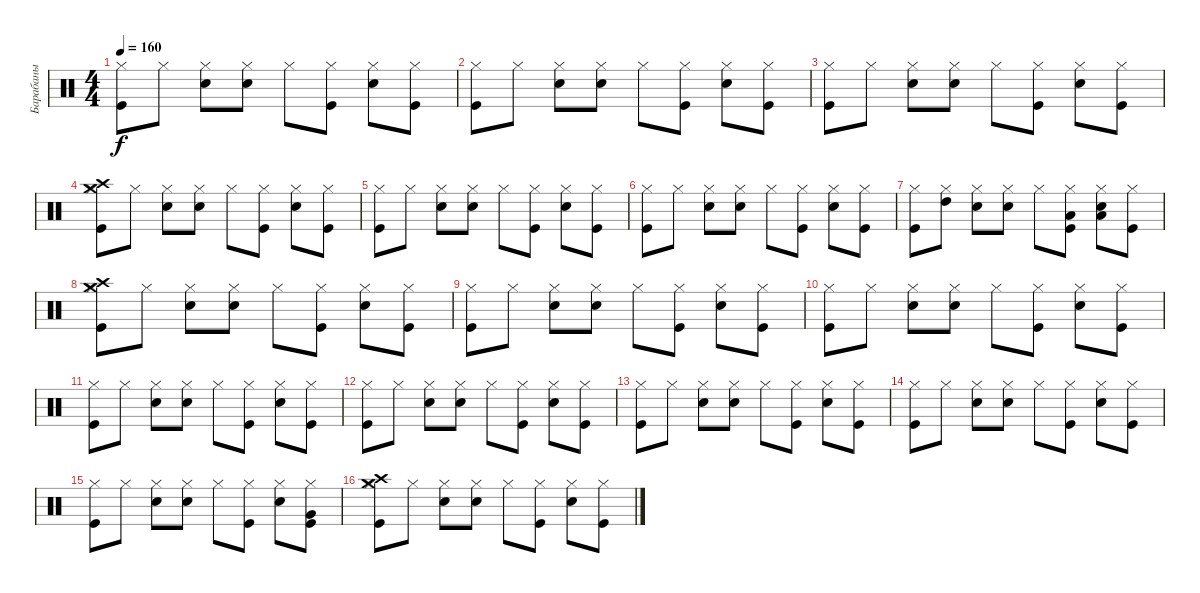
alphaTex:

\track ("Барабаны" "Барабаны") {instrument percussion}
\staff {score}
\articulation defaults
\ts (4 4)
\tempo 160
\clef neutral
\ks c
("Kick (hit)" "Hi-Hat (closed)").8{dy f} "Hi-Hat (closed)".8 ("Snare (hit) 2" "Hi-Hat (closed)").8 ("Snare (hit) 2" "Hi-Hat (closed)").8 "Hi-Hat (closed)".8 ("Kick (hit)" "Hi-Hat (closed)").8 ("Snare (hit) 2" "Hi-Hat (closed)").8 ("Kick (hit)" "Hi-Hat (closed)").8 |
("Kick (hit)" "Hi-Hat (closed)").8 "Hi-Hat (closed)".8 ("Snare (hit) 2" "Hi-Hat (closed)").8 ("Snare (hit) 2" "Hi-Hat (closed)").8 "Hi-Hat (closed)".8 ("Kick (hit)" "Hi-Hat (closed)").8 ("Snare (hit) 2" "Hi-Hat (closed)").8 ("Kick (hit)" "Hi-Hat (closed)").8 |
("Kick (hit)" "Hi-Hat (closed)").8 "Hi-Hat (closed)".8 ("Snare (hit) 2" "Hi-Hat (closed)").8 ("Snare (hit) 2" "Hi-Hat (closed)").8 "Hi-Hat (closed)".8 ("Kick (hit)" "Hi-Hat (closed)").8 ("Snare (hit) 2" "Hi-Hat (closed)").8 ("Kick (hit)" "Hi-Hat (closed)").8 |
("Kick (hit)" "Hi-Hat (closed)" "Crash high (hit)" "Crash medium (hit)").8 "Hi-Hat (closed)".8 ("Snare (hit) 2" "Hi-Hat (closed)").8 ("Snare (hit) 2" "Hi-Hat (closed)").8 "Hi-Hat (closed)".8 ("Kick (hit)" "Hi-Hat (closed)").8 ("Snare (hit) 2" "Hi-Hat (closed)").8 ("Kick (hit)" "Hi-Hat (closed)").8 |
("Kick (hit)" "Hi-Hat (closed)").8 "Hi-Hat (closed)".8 ("Snare (hit) 2" "Hi-Hat (closed)").8 ("Snare (hit) 2" "Hi-Hat (closed)").8 "Hi-Hat (closed)".8 ("Kick (hit)" "Hi-Hat (closed)").8 ("Snare (hit) 2" "Hi-Hat (closed)").8 ("Kick (hit)" "Hi-Hat (closed)").8 |
("Kick (hit)" "Hi-Hat (closed)").8 "Hi-Hat (closed)".8 ("Snare (hit) 2" "Hi-Hat (closed)").8 ("Snare (hit) 2" "Hi-Hat (closed)").8 "Hi-Hat (closed)".8 ("Kick (hit)" "Hi-Hat (closed)").8 ("Snare (hit) 2" "Hi-Hat (closed)").8 ("Kick (hit)" "Hi-Hat (closed)").8 |
("Kick (hit)" "Hi-Hat (closed)").8 ("Hi-Hat (closed)" "High Tom (hit)").8 ("Snare (hit) 2" "Hi-Hat (closed)").8 ("Snare (hit) 2" "Hi-Hat (closed)").8 "Hi-Hat (closed)".8 ("Kick (hit)" "Hi-Hat (closed)" "Low Tom (hit)").8 ("Snare (hit) 2" "Hi-Hat (closed)" "Low Tom (hit)").8 ("Kick (hit)" "Hi-Hat (closed)").8 |
("Kick (hit)" "Hi-Hat (closed)" "Crash high (hit)" "Crash medium (hit)").8 "Hi-Hat (closed)".8 ("Snare (hit) 2" "Hi-Hat (closed)").8 ("Snare (hit) 2" "Hi-Hat (closed)").8 "Hi-Hat (closed)".8 ("Kick (hit)" "Hi-Hat (closed)").8 ("Snare (hit) 2" "Hi-Hat (closed)").8 ("Kick (hit)" "Hi-Hat (closed)").8 |
("Kick (hit)" "Hi-Hat (closed)").8 "Hi-Hat (closed)".8 ("Snare (hit) 2" "Hi-Hat (closed)").8 ("Snare (hit) 2" "Hi-Hat (closed)").8 "Hi-Hat (closed)".8 ("Kick (hit)" "Hi-Hat (closed)").8 ("Snare (hit) 2" "Hi-Hat (closed)").8 ("Kick (hit)" "Hi-Hat (closed)").8 |
("Kick (hit)" "Hi-Hat (closed)").8 "Hi-Hat (closed)".8 ("Snare (hit) 2" "Hi-Hat (closed)").8 ("Snare (hit) 2" "Hi-Hat (closed)").8 "Hi-Hat (closed)".8 ("Kick (hit)" "Hi-Hat (closed)").8 ("Snare (hit) 2" "Hi-Hat (closed)").8 ("Kick (hit)" "Hi-Hat (closed)").8 |
("Kick (hit)" "Hi-Hat (closed)").8 "Hi-Hat (closed)".8 ("Snare (hit) 2" "Hi-Hat (closed)").8 ("Snare (hit) 2" "Hi-Hat (closed)").8 "Hi-Hat (closed)".8 ("Kick (hit)" "Hi-Hat (closed)").8 ("Snare (hit) 2" "Hi-Hat (closed)").8 ("Kick (hit)" "Hi-Hat (closed)").8 |
("Kick (hit)" "Hi-Hat (closed)").8 "Hi-Hat (closed)".8 ("Snare (hit) 2" "Hi-Hat (closed)").8 ("Snare (hit) 2" "Hi-Hat (closed)").8 "Hi-Hat (closed)".8 ("Kick (hit)" "Hi-Hat (closed)").8 ("Snare (hit) 2" "Hi-Hat (closed)").8 ("Kick (hit)" "Hi-Hat (closed)").8 |
("Kick (hit)" "Hi-Hat (closed)").8 "Hi-Hat (closed)".8 ("Snare (hit) 2" "Hi-Hat (closed)").8 ("Snare (hit) 2" "Hi-Hat (closed)").8 "Hi-Hat (closed)".8 ("Kick (hit)" "Hi-Hat (closed)").8 ("Snare (hit) 2" "Hi-Hat (closed)").8 ("Kick (hit)" "Hi-Hat (closed)").8 |
("Kick (hit)" "Hi-Hat (closed)").8 "Hi-Hat (closed)".8 ("Snare (hit) 2" "Hi-Hat (closed)").8 ("Snare (hit) 2" "Hi-Hat (closed)").8 "Hi-Hat (closed)".8 ("Kick (hit)" "Hi-Hat (closed)").8 ("Snare (hit) 2" "Hi-Hat (closed)").8 ("Kick (hit)" "Hi-Hat (closed)").8 |
("Kick (hit)" "Hi-Hat (closed)").8 "Hi-Hat (closed)".8 ("Snare (hit) 2" "Hi-Hat (closed)").8 ("Snare (hit) 2" "Hi-Hat (closed)").8 "Hi-Hat (closed)".8 ("Kick (hit)" "Hi-Hat (closed)").8 ("Snare (hit) 2" "Hi-Hat (closed)").8 ("Kick (hit)" "Hi-Hat (closed)" "Very Low Tom (hit)").8 |
("Kick (hit)" "Hi-Hat (closed)" "Crash high (hit)" "Crash medium (hit)").8 "Hi-Hat (closed)".8 ("Snare (hit) 2" "Hi-Hat (closed)").8 ("Snare (hit) 2" "Hi-Hat (closed)").8 "Hi-Hat (closed)".8 ("Kick (hit)" "Hi-Hat (closed)").8 ("Snare (hit) 2" "Hi-Hat (closed)").8 ("Kick (hit)" "Hi-Hat (closed)").8
